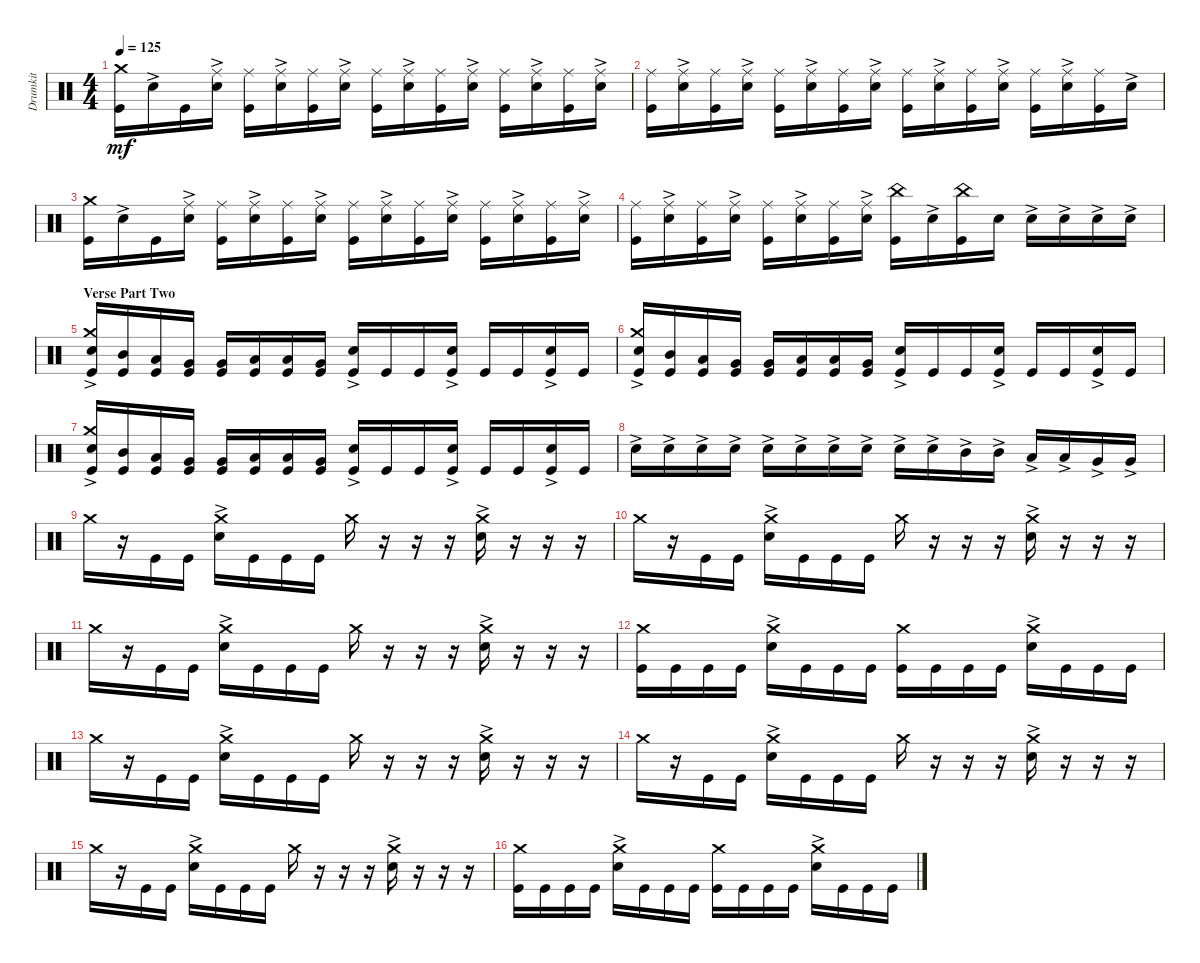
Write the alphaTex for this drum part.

\track ("Drumkit" "Drumkit") {instrument percussion}
\staff {score}
\articulation defaults
\ts (4 4)
\tempo 125
\clef neutral
\ks c
("Kick (hit)" "Crash medium (hit)").16{dy mf} "Snare (hit) 2"{ac}.16 "Kick (hit)".16 ("Snare (hit) 2"{ac} "Ride (middle)").16 ("Kick (hit)" "Ride (middle)").16 ("Snare (hit) 2"{ac} "Ride (middle)").16 ("Kick (hit)" "Ride (middle)").16 ("Snare (hit) 2"{ac} "Ride (middle)").16 ("Kick (hit)" "Ride (middle)").16 ("Snare (hit) 2"{ac} "Ride (middle)").16 ("Kick (hit)" "Ride (middle)").16 ("Snare (hit) 2"{ac} "Ride (middle)").16 ("Kick (hit)" "Ride (middle)").16 ("Snare (hit) 2"{ac} "Ride (middle)").16 ("Kick (hit)" "Ride (middle)").16 ("Snare (hit) 2"{ac} "Ride (middle)").16 |
("Kick (hit)" "Ride (middle)").16 ("Snare (hit) 2"{ac} "Ride (middle)").16 ("Kick (hit)" "Ride (middle)").16 ("Snare (hit) 2"{ac} "Ride (middle)").16 ("Kick (hit)" "Ride (middle)").16 ("Snare (hit) 2"{ac} "Ride (middle)").16 ("Kick (hit)" "Ride (middle)").16 ("Snare (hit) 2"{ac} "Ride (middle)").16 ("Kick (hit)" "Ride (middle)").16 ("Snare (hit) 2"{ac} "Ride (middle)").16 ("Kick (hit)" "Ride (middle)").16 ("Snare (hit) 2"{ac} "Ride (middle)").16 ("Kick (hit)" "Ride (middle)").16 ("Snare (hit) 2"{ac} "Ride (middle)").16 ("Kick (hit)" "Ride (middle)").16 "Snare (hit) 2"{ac}.16 |
("Kick (hit)" "Crash medium (hit)").16 "Snare (hit) 2"{ac}.16 "Kick (hit)".16 ("Snare (hit) 2"{ac} "Ride (middle)").16 ("Kick (hit)" "Ride (middle)").16 ("Snare (hit) 2"{ac} "Ride (middle)").16 ("Kick (hit)" "Ride (middle)").16 ("Snare (hit) 2"{ac} "Ride (middle)").16 ("Kick (hit)" "Ride (middle)").16 ("Snare (hit) 2"{ac} "Ride (middle)").16 ("Kick (hit)" "Ride (middle)").16 ("Snare (hit) 2"{ac} "Ride (middle)").16 ("Kick (hit)" "Ride (middle)").16 ("Snare (hit) 2"{ac} "Ride (middle)").16 ("Kick (hit)" "Ride (middle)").16 ("Snare (hit) 2"{ac} "Ride (middle)").16 |
("Kick (hit)" "Ride (middle)").16 ("Snare (hit) 2"{ac} "Ride (middle)").16 ("Kick (hit)" "Ride (middle)").16 ("Snare (hit) 2"{ac} "Ride (middle)").16 ("Kick (hit)" "Ride (middle)").16 ("Snare (hit) 2"{ac} "Ride (middle)").16 ("Kick (hit)" "Ride (middle)").16 ("Snare (hit) 2"{ac} "Ride (middle)").16 ("Kick (hit)" "China (hit)").16 "Snare (hit) 2"{ac}.16 ("Kick (hit)" "China (hit)").16 "Snare (hit) 2".16 "Snare (hit) 2"{ac}.16 "Snare (hit) 2"{ac}.16 "Snare (hit) 2"{ac}.16 "Snare (hit) 2"{ac}.16 |
\section ("" "Verse Part Two")
("Kick (hit)" "Snare (hit) 2"{ac} "Crash medium (hit)").16 ("Kick (hit)" "Mid Tom (hit)").16 ("Kick (hit)" "Low Tom (hit)").16 ("Kick (hit)" "Very Low Tom (hit)").16 ("Kick (hit)" "Very Low Tom (hit)").16 ("Kick (hit)" "Low Floor Tom (hit)").16 ("Kick (hit)" "Low Tom (hit)").16 ("Kick (hit)" "Very Low Tom (hit)").16 ("Kick (hit)" "Snare (hit) 2"{ac}).16 "Kick (hit)".16 "Kick (hit)".16 ("Kick (hit)" "Snare (hit) 2"{ac}).16 "Kick (hit)".16 "Kick (hit)".16 ("Kick (hit)" "Snare (hit) 2"{ac}).16 "Kick (hit)".16 |
("Kick (hit)" "Snare (hit) 2"{ac} "Crash medium (hit)").16 ("Kick (hit)" "Mid Tom (hit)").16 ("Kick (hit)" "Low Tom (hit)").16 ("Kick (hit)" "Very Low Tom (hit)").16 ("Kick (hit)" "Very Low Tom (hit)").16 ("Kick (hit)" "Low Floor Tom (hit)").16 ("Kick (hit)" "Low Tom (hit)").16 ("Kick (hit)" "Very Low Tom (hit)").16 ("Kick (hit)" "Snare (hit) 2"{ac}).16 "Kick (hit)".16 "Kick (hit)".16 ("Kick (hit)" "Snare (hit) 2"{ac}).16 "Kick (hit)".16 "Kick (hit)".16 ("Kick (hit)" "Snare (hit) 2"{ac}).16 "Kick (hit)".16 |
("Kick (hit)" "Snare (hit) 2"{ac} "Crash medium (hit)").16 ("Kick (hit)" "Mid Tom (hit)").16 ("Kick (hit)" "Low Tom (hit)").16 ("Kick (hit)" "Very Low Tom (hit)").16 ("Kick (hit)" "Very Low Tom (hit)").16 ("Kick (hit)" "Low Floor Tom (hit)").16 ("Kick (hit)" "Low Tom (hit)").16 ("Kick (hit)" "Very Low Tom (hit)").16 ("Kick (hit)" "Snare (hit) 2"{ac}).16 "Kick (hit)".16 "Kick (hit)".16 ("Kick (hit)" "Snare (hit) 2"{ac}).16 "Kick (hit)".16 "Kick (hit)".16 ("Kick (hit)" "Snare (hit) 2"{ac}).16 "Kick (hit)".16 |
"Snare (hit) 2"{ac}.16 "Snare (hit) 2"{ac}.16 "Snare (hit) 2"{ac}.16 "Snare (hit) 2"{ac}.16 "Snare (hit) 2"{ac}.16 "Snare (hit) 2"{ac}.16 "Snare (hit) 2"{ac}.16 "Snare (hit) 2"{ac}.16 "Snare (hit) 2"{ac}.16 "Snare (hit) 2"{ac}.16 "Mid Tom (hit)"{ac}.16 "Mid Tom (hit)"{ac}.16 "Low Tom (hit)"{ac}.16 "Low Tom (hit)"{ac}.16 "Very Low Tom (hit)"{ac}.16 "Very Low Tom (hit)"{ac}.16 |
"Crash medium (hit)".16 r.16 "Kick (hit)".16 "Kick (hit)".16 ("Crash medium (hit)" "Snare (hit) 2"{ac}).16 "Kick (hit)".16 "Kick (hit)".16 "Kick (hit)".16 "Crash medium (hit)".16 r.16 r.16 r.16 ("Crash medium (hit)" "Snare (hit) 2"{ac}).16 r.16 r.16 r.16 |
"Crash medium (hit)".16 r.16 "Kick (hit)".16 "Kick (hit)".16 ("Crash medium (hit)" "Snare (hit) 2"{ac}).16 "Kick (hit)".16 "Kick (hit)".16 "Kick (hit)".16 "Crash medium (hit)".16 r.16 r.16 r.16 ("Crash medium (hit)" "Snare (hit) 2"{ac}).16 r.16 r.16 r.16 |
"Crash medium (hit)".16 r.16 "Kick (hit)".16 "Kick (hit)".16 ("Crash medium (hit)" "Snare (hit) 2"{ac}).16 "Kick (hit)".16 "Kick (hit)".16 "Kick (hit)".16 "Crash medium (hit)".16 r.16 r.16 r.16 ("Crash medium (hit)" "Snare (hit) 2"{ac}).16 r.16 r.16 r.16 |
("Crash medium (hit)" "Kick (hit)").16 "Kick (hit)".16 "Kick (hit)".16 "Kick (hit)".16 ("Crash medium (hit)" "Snare (hit) 2"{ac}).16 "Kick (hit)".16 "Kick (hit)".16 "Kick (hit)".16 ("Crash medium (hit)" "Kick (hit)").16 "Kick (hit)".16 "Kick (hit)".16 "Kick (hit)".16 ("Crash medium (hit)" "Snare (hit) 2"{ac}).16 "Kick (hit)".16 "Kick (hit)".16 "Kick (hit)".16 |
"Crash medium (hit)".16 r.16 "Kick (hit)".16 "Kick (hit)".16 ("Crash medium (hit)" "Snare (hit) 2"{ac}).16 "Kick (hit)".16 "Kick (hit)".16 "Kick (hit)".16 "Crash medium (hit)".16 r.16 r.16 r.16 ("Crash medium (hit)" "Snare (hit) 2"{ac}).16 r.16 r.16 r.16 |
"Crash medium (hit)".16 r.16 "Kick (hit)".16 "Kick (hit)".16 ("Crash medium (hit)" "Snare (hit) 2"{ac}).16 "Kick (hit)".16 "Kick (hit)".16 "Kick (hit)".16 "Crash medium (hit)".16 r.16 r.16 r.16 ("Crash medium (hit)" "Snare (hit) 2"{ac}).16 r.16 r.16 r.16 |
"Crash medium (hit)".16 r.16 "Kick (hit)".16 "Kick (hit)".16 ("Crash medium (hit)" "Snare (hit) 2"{ac}).16 "Kick (hit)".16 "Kick (hit)".16 "Kick (hit)".16 "Crash medium (hit)".16 r.16 r.16 r.16 ("Crash medium (hit)" "Snare (hit) 2"{ac}).16 r.16 r.16 r.16 |
("Crash medium (hit)" "Kick (hit)").16 "Kick (hit)".16 "Kick (hit)".16 "Kick (hit)".16 ("Crash medium (hit)" "Snare (hit) 2"{ac}).16 "Kick (hit)".16 "Kick (hit)".16 "Kick (hit)".16 ("Crash medium (hit)" "Kick (hit)").16 "Kick (hit)".16 "Kick (hit)".16 "Kick (hit)".16 ("Crash medium (hit)" "Snare (hit) 2"{ac}).16 "Kick (hit)".16 "Kick (hit)".16 "Kick (hit)".16
